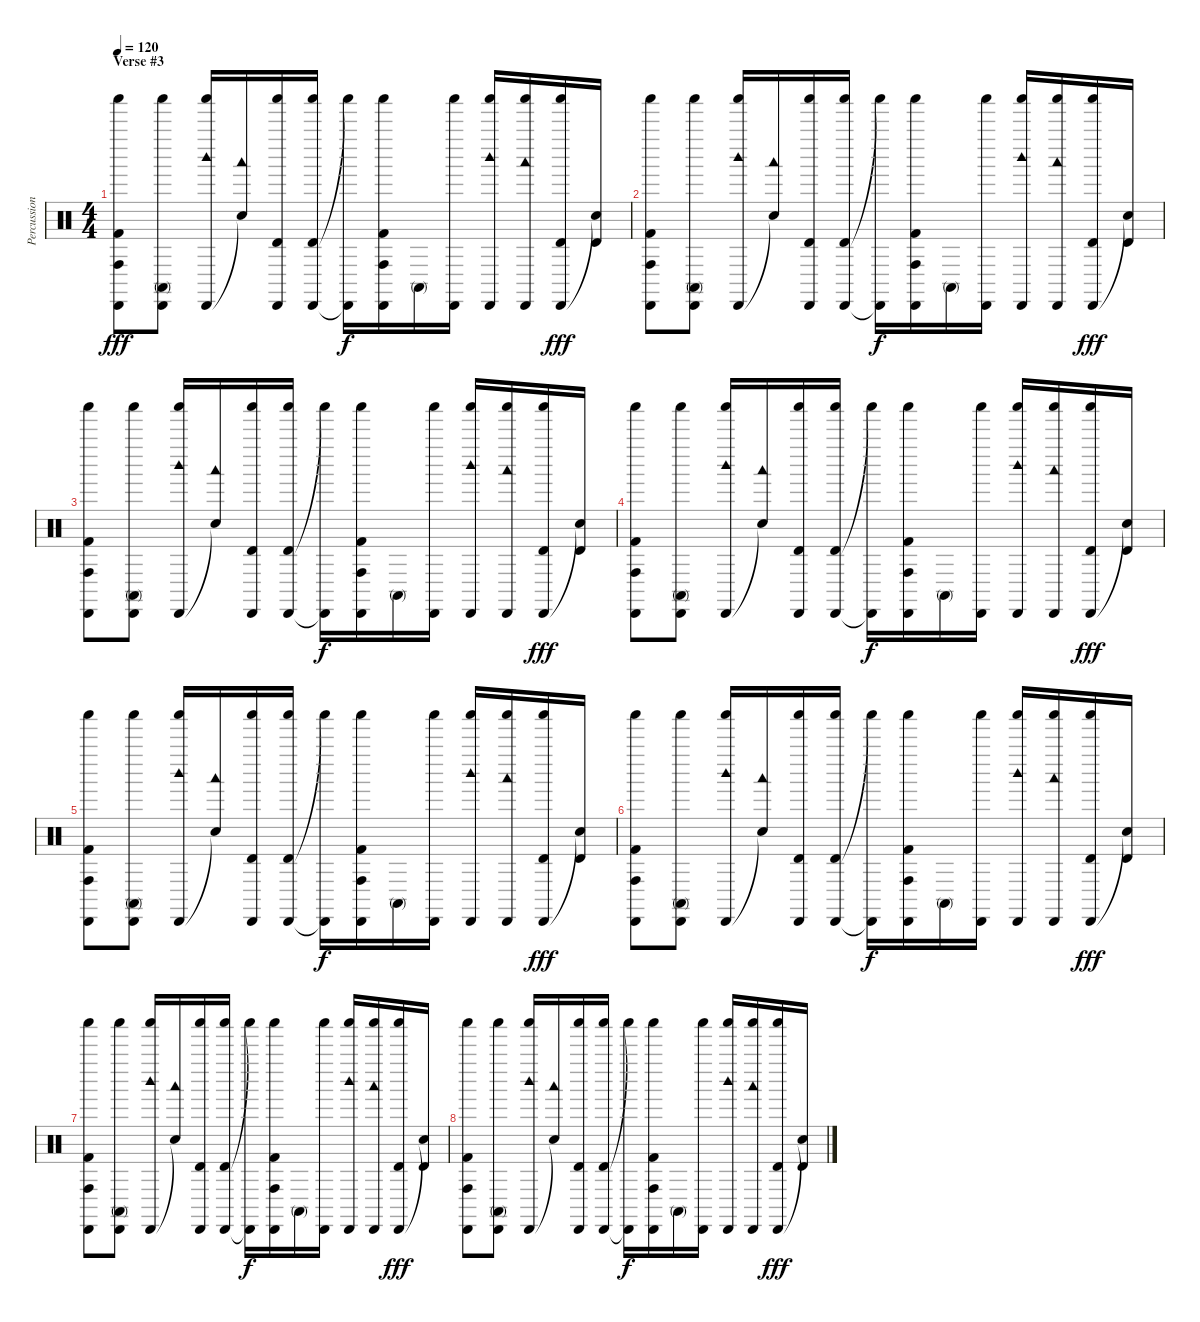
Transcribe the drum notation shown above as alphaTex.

\track ("Percussion" "Percussion") {instrument percussion}
\staff {score}
\articulation defaults
\ts (4 4)
\section ("" "Verse #3")
\tempo 120
\clef neutral
\ks c
("Cabasa (hit)" "Conga high (hit)" "Kick (hit) 2" "Shaker (hit)").8{dy fff} ("Cabasa (hit)" "Conga high (mute)" "Shaker (hit)").8 ("Cabasa (hit)" "Woodblock high (hit)" "Shaker (hit)").16 ("Snare (hit)"{t} "Woodblock low (hit)").16 ("Cabasa (hit)" "Timbale high (hit)" "Shaker (hit)").16 ("Cabasa (hit)" "Timbale high (hit)" "Shaker (hit)").16 ("Cabasa (hit)"{t} "Shaker (hit)"{t}).16{dy f} ("Cabasa (hit)" "Conga high (hit)" "Kick (hit) 2" "Shaker (hit)").16 "Conga high (mute)".16 ("Cabasa (hit)" "Shaker (hit)").16 ("Cabasa (hit)" "Woodblock high (hit)" "Shaker (hit)").16 ("Cabasa (hit)" "Woodblock low (hit)" "Shaker (hit)").16 ("Cabasa (hit)" "Timbale high (hit)" "Shaker (hit)").16{dy fff} ("Snare (hit)"{t} "Timbale high (hit)").16 |
("Cabasa (hit)" "Conga high (hit)" "Kick (hit) 2" "Shaker (hit)").8 ("Cabasa (hit)" "Conga high (mute)" "Shaker (hit)").8 ("Cabasa (hit)" "Woodblock high (hit)" "Shaker (hit)").16 ("Snare (hit)"{t} "Woodblock low (hit)").16 ("Cabasa (hit)" "Timbale high (hit)" "Shaker (hit)").16 ("Cabasa (hit)" "Timbale high (hit)" "Shaker (hit)").16 ("Cabasa (hit)"{t} "Shaker (hit)"{t}).16{dy f} ("Cabasa (hit)" "Conga high (hit)" "Kick (hit) 2" "Shaker (hit)").16 "Conga high (mute)".16 ("Cabasa (hit)" "Shaker (hit)").16 ("Cabasa (hit)" "Woodblock high (hit)" "Shaker (hit)").16 ("Cabasa (hit)" "Woodblock low (hit)" "Shaker (hit)").16 ("Cabasa (hit)" "Timbale high (hit)" "Shaker (hit)").16{dy fff} ("Snare (hit)"{t} "Timbale high (hit)").16 |
("Cabasa (hit)" "Conga high (hit)" "Kick (hit) 2" "Shaker (hit)").8 ("Cabasa (hit)" "Conga high (mute)" "Shaker (hit)").8 ("Cabasa (hit)" "Woodblock high (hit)" "Shaker (hit)").16 ("Snare (hit)"{t} "Woodblock low (hit)").16 ("Cabasa (hit)" "Timbale high (hit)" "Shaker (hit)").16 ("Cabasa (hit)" "Timbale high (hit)" "Shaker (hit)").16 ("Cabasa (hit)"{t} "Shaker (hit)"{t}).16{dy f} ("Cabasa (hit)" "Conga high (hit)" "Kick (hit) 2" "Shaker (hit)").16 "Conga high (mute)".16 ("Cabasa (hit)" "Shaker (hit)").16 ("Cabasa (hit)" "Woodblock high (hit)" "Shaker (hit)").16 ("Cabasa (hit)" "Woodblock low (hit)" "Shaker (hit)").16 ("Cabasa (hit)" "Timbale high (hit)" "Shaker (hit)").16{dy fff} ("Snare (hit)"{t} "Timbale high (hit)").16 |
("Cabasa (hit)" "Conga high (hit)" "Kick (hit) 2" "Shaker (hit)").8 ("Cabasa (hit)" "Conga high (mute)" "Shaker (hit)").8 ("Cabasa (hit)" "Woodblock high (hit)" "Shaker (hit)").16 ("Snare (hit)"{t} "Woodblock low (hit)").16 ("Cabasa (hit)" "Timbale high (hit)" "Shaker (hit)").16 ("Cabasa (hit)" "Timbale high (hit)" "Shaker (hit)").16 ("Cabasa (hit)"{t} "Shaker (hit)"{t}).16{dy f} ("Cabasa (hit)" "Conga high (hit)" "Kick (hit) 2" "Shaker (hit)").16 "Conga high (mute)".16 ("Cabasa (hit)" "Shaker (hit)").16 ("Cabasa (hit)" "Woodblock high (hit)" "Shaker (hit)").16 ("Cabasa (hit)" "Woodblock low (hit)" "Shaker (hit)").16 ("Cabasa (hit)" "Timbale high (hit)" "Shaker (hit)").16{dy fff} ("Snare (hit)"{t} "Timbale high (hit)").16 |
("Cabasa (hit)" "Conga high (hit)" "Kick (hit) 2" "Shaker (hit)").8 ("Cabasa (hit)" "Conga high (mute)" "Shaker (hit)").8 ("Cabasa (hit)" "Woodblock high (hit)" "Shaker (hit)").16 ("Snare (hit)"{t} "Woodblock low (hit)").16 ("Cabasa (hit)" "Timbale high (hit)" "Shaker (hit)").16 ("Cabasa (hit)" "Timbale high (hit)" "Shaker (hit)").16 ("Cabasa (hit)"{t} "Shaker (hit)"{t}).16{dy f} ("Cabasa (hit)" "Conga high (hit)" "Kick (hit) 2" "Shaker (hit)").16 "Conga high (mute)".16 ("Cabasa (hit)" "Shaker (hit)").16 ("Cabasa (hit)" "Woodblock high (hit)" "Shaker (hit)").16 ("Cabasa (hit)" "Woodblock low (hit)" "Shaker (hit)").16 ("Cabasa (hit)" "Timbale high (hit)" "Shaker (hit)").16{dy fff} ("Snare (hit)"{t} "Timbale high (hit)").16 |
("Cabasa (hit)" "Conga high (hit)" "Kick (hit) 2" "Shaker (hit)").8 ("Cabasa (hit)" "Conga high (mute)" "Shaker (hit)").8 ("Cabasa (hit)" "Woodblock high (hit)" "Shaker (hit)").16 ("Snare (hit)"{t} "Woodblock low (hit)").16 ("Cabasa (hit)" "Timbale high (hit)" "Shaker (hit)").16 ("Cabasa (hit)" "Timbale high (hit)" "Shaker (hit)").16 ("Cabasa (hit)"{t} "Shaker (hit)"{t}).16{dy f} ("Cabasa (hit)" "Conga high (hit)" "Kick (hit) 2" "Shaker (hit)").16 "Conga high (mute)".16 ("Cabasa (hit)" "Shaker (hit)").16 ("Cabasa (hit)" "Woodblock high (hit)" "Shaker (hit)").16 ("Cabasa (hit)" "Woodblock low (hit)" "Shaker (hit)").16 ("Cabasa (hit)" "Timbale high (hit)" "Shaker (hit)").16{dy fff} ("Snare (hit)"{t} "Timbale high (hit)").16 |
("Cabasa (hit)" "Conga high (hit)" "Kick (hit) 2" "Shaker (hit)").8 ("Cabasa (hit)" "Conga high (mute)" "Shaker (hit)").8 ("Cabasa (hit)" "Woodblock high (hit)" "Shaker (hit)").16 ("Snare (hit)"{t} "Woodblock low (hit)").16 ("Cabasa (hit)" "Timbale high (hit)" "Shaker (hit)").16 ("Cabasa (hit)" "Timbale high (hit)" "Shaker (hit)").16 ("Cabasa (hit)"{t} "Shaker (hit)"{t}).16{dy f} ("Cabasa (hit)" "Conga high (hit)" "Kick (hit) 2" "Shaker (hit)").16 "Conga high (mute)".16 ("Cabasa (hit)" "Shaker (hit)").16 ("Cabasa (hit)" "Woodblock high (hit)" "Shaker (hit)").16 ("Cabasa (hit)" "Woodblock low (hit)" "Shaker (hit)").16 ("Cabasa (hit)" "Timbale high (hit)" "Shaker (hit)").16{dy fff} ("Snare (hit)"{t} "Timbale high (hit)").16 |
("Cabasa (hit)" "Conga high (hit)" "Kick (hit) 2" "Shaker (hit)").8 ("Cabasa (hit)" "Conga high (mute)" "Shaker (hit)").8 ("Cabasa (hit)" "Woodblock high (hit)" "Shaker (hit)").16 ("Snare (hit)"{t} "Woodblock low (hit)").16 ("Cabasa (hit)" "Timbale high (hit)" "Shaker (hit)").16 ("Cabasa (hit)" "Timbale high (hit)" "Shaker (hit)").16 ("Cabasa (hit)"{t} "Shaker (hit)"{t}).16{dy f} ("Cabasa (hit)" "Conga high (hit)" "Kick (hit) 2" "Shaker (hit)").16 "Conga high (mute)".16 ("Cabasa (hit)" "Shaker (hit)").16 ("Cabasa (hit)" "Woodblock high (hit)" "Shaker (hit)").16 ("Cabasa (hit)" "Woodblock low (hit)" "Shaker (hit)").16 ("Cabasa (hit)" "Timbale high (hit)" "Shaker (hit)").16{dy fff} ("Snare (hit)"{t} "Timbale high (hit)").16
